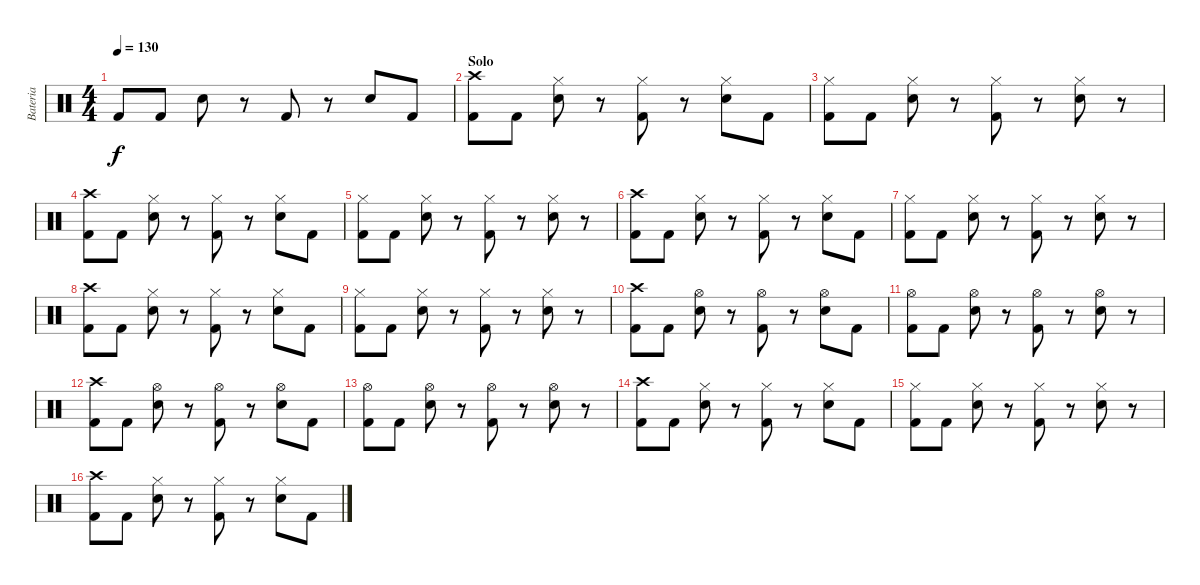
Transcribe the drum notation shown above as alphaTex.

\track ("Bateria" "Bateria") {instrument percussion}
\staff {score}
\articulation defaults
\ts (4 4)
\tempo 130
\clef neutral
\ks c "Kick (hit) 2".8{dy f} "Kick (hit) 2".8 "Snare (hit) 2".8
r.8 "Kick (hit) 2".8 r.8 "Snare (hit) 2".8 "Kick (hit) 2".8 |
\section ("" "Solo")
("Kick (hit) 2" "Crash high (hit)").8 "Kick (hit) 2".8 ("Snare (hit) 2" "Hi-Hat (closed)").8 r.8 ("Kick (hit) 2" "Hi-Hat (closed)").8 r.8 ("Snare (hit) 2" "Hi-Hat (closed)").8 "Kick (hit) 2".8 |
("Kick (hit) 2" "Hi-Hat (closed)").8 "Kick (hit) 2".8 ("Snare (hit) 2" "Hi-Hat (closed)").8 r.8 ("Kick (hit) 2" "Hi-Hat (closed)").8 r.8 ("Snare (hit) 2" "Hi-Hat (closed)").8 r.8 |
("Kick (hit) 2" "Crash high (hit)").8 "Kick (hit) 2".8 ("Snare (hit) 2" "Hi-Hat (closed)").8 r.8 ("Kick (hit) 2" "Hi-Hat (closed)").8 r.8 ("Snare (hit) 2" "Hi-Hat (closed)").8 "Kick (hit) 2".8 |
("Kick (hit) 2" "Hi-Hat (closed)").8 "Kick (hit) 2".8 ("Snare (hit) 2" "Hi-Hat (closed)").8 r.8 ("Kick (hit) 2" "Hi-Hat (closed)").8 r.8 ("Snare (hit) 2" "Hi-Hat (closed)").8 r.8 |
("Kick (hit) 2" "Crash high (hit)").8 "Kick (hit) 2".8 ("Snare (hit) 2" "Hi-Hat (closed)").8 r.8 ("Kick (hit) 2" "Hi-Hat (closed)").8 r.8 ("Snare (hit) 2" "Hi-Hat (closed)").8 "Kick (hit) 2".8 |
("Kick (hit) 2" "Hi-Hat (closed)").8 "Kick (hit) 2".8 ("Snare (hit) 2" "Hi-Hat (closed)").8 r.8 ("Kick (hit) 2" "Hi-Hat (closed)").8 r.8 ("Snare (hit) 2" "Hi-Hat (closed)").8 r.8 |
("Kick (hit) 2" "Crash high (hit)").8 "Kick (hit) 2".8 ("Snare (hit) 2" "Hi-Hat (closed)").8 r.8 ("Kick (hit) 2" "Hi-Hat (closed)").8 r.8 ("Snare (hit) 2" "Hi-Hat (closed)").8 "Kick (hit) 2".8 |
("Kick (hit) 2" "Hi-Hat (closed)").8 "Kick (hit) 2".8 ("Snare (hit) 2" "Hi-Hat (closed)").8 r.8 ("Kick (hit) 2" "Hi-Hat (closed)").8 r.8 ("Snare (hit) 2" "Hi-Hat (closed)").8 r.8 |
("Kick (hit) 2" "Crash high (hit)").8 "Kick (hit) 2".8 ("Snare (hit) 2" "Hi-Hat (open)").8 r.8 ("Kick (hit) 2" "Hi-Hat (open)").8 r.8 ("Snare (hit) 2" "Hi-Hat (open)").8 "Kick (hit) 2".8 |
("Kick (hit) 2" "Hi-Hat (open)").8 "Kick (hit) 2".8 ("Snare (hit) 2" "Hi-Hat (open)").8 r.8 ("Kick (hit) 2" "Hi-Hat (open)").8 r.8 ("Snare (hit) 2" "Hi-Hat (open)").8 r.8 |
("Kick (hit) 2" "Crash high (hit)").8 "Kick (hit) 2".8 ("Snare (hit) 2" "Hi-Hat (open)").8 r.8 ("Kick (hit) 2" "Hi-Hat (open)").8 r.8 ("Snare (hit) 2" "Hi-Hat (open)").8 "Kick (hit) 2".8 |
("Kick (hit) 2" "Hi-Hat (open)").8 "Kick (hit) 2".8 ("Snare (hit) 2" "Hi-Hat (open)").8 r.8 ("Kick (hit) 2" "Hi-Hat (open)").8 r.8 ("Snare (hit) 2" "Hi-Hat (open)").8 r.8 |
("Kick (hit) 2" "Crash high (hit)").8 "Kick (hit) 2".8 ("Snare (hit) 2" "Hi-Hat (closed)").8 r.8 ("Kick (hit) 2" "Hi-Hat (closed)").8 r.8 ("Snare (hit) 2" "Hi-Hat (closed)").8 "Kick (hit) 2".8 |
("Kick (hit) 2" "Hi-Hat (closed)").8 "Kick (hit) 2".8 ("Snare (hit) 2" "Hi-Hat (closed)").8 r.8 ("Kick (hit) 2" "Hi-Hat (closed)").8 r.8 ("Snare (hit) 2" "Hi-Hat (closed)").8 r.8 |
("Kick (hit) 2" "Crash high (hit)").8 "Kick (hit) 2".8 ("Snare (hit) 2" "Hi-Hat (closed)").8 r.8 ("Kick (hit) 2" "Hi-Hat (closed)").8 r.8 ("Snare (hit) 2" "Hi-Hat (closed)").8 "Kick (hit) 2".8
